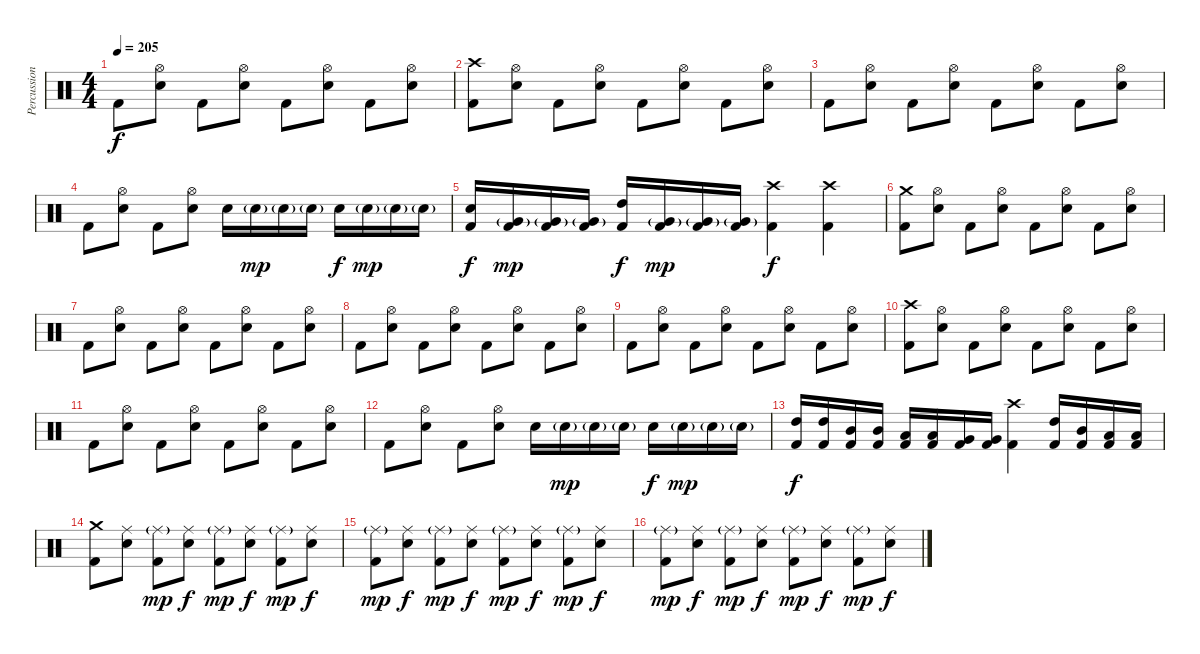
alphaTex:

\track ("Percussions" "Percussion") {instrument percussion}
\staff {score}
\articulation defaults
\ts (4 4)
\tempo 205
\clef neutral
\ks c "Kick (hit) 2".8{dy f}
("Hi-Hat (open)" "Electric Snare (hit)").8 "Kick (hit) 2".8 ("Hi-Hat (open)" "Electric Snare (hit)").8 "Kick (hit) 2".8 ("Hi-Hat (open)" "Electric Snare (hit)").8 "Kick (hit) 2".8 ("Hi-Hat (open)" "Electric Snare (hit)").8 |
("Crash high (hit)" "Kick (hit) 2").8 ("Hi-Hat (open)" "Electric Snare (hit)").8 "Kick (hit) 2".8 ("Hi-Hat (open)" "Electric Snare (hit)").8 "Kick (hit) 2".8 ("Hi-Hat (open)" "Electric Snare (hit)").8 "Kick (hit) 2".8 ("Hi-Hat (open)" "Electric Snare (hit)").8 |
"Kick (hit) 2".8 ("Hi-Hat (open)" "Electric Snare (hit)").8 "Kick (hit) 2".8 ("Hi-Hat (open)" "Electric Snare (hit)").8 "Kick (hit) 2".8 ("Hi-Hat (open)" "Electric Snare (hit)").8 "Kick (hit) 2".8 ("Hi-Hat (open)" "Electric Snare (hit)").8 |
"Kick (hit) 2".8 ("Hi-Hat (open)" "Electric Snare (hit)").8 "Kick (hit) 2".8 ("Hi-Hat (open)" "Electric Snare (hit)").8 "Electric Snare (hit)".16 "Electric Snare (hit)"{g}.16{dy mp} "Electric Snare (hit)"{g}.16 "Electric Snare (hit)"{g}.16 "Electric Snare (hit)".16{dy f} "Electric Snare (hit)"{g}.16{dy mp} "Electric Snare (hit)"{g}.16 "Electric Snare (hit)"{g}.16 |
("Electric Snare (hit)" "Kick (hit) 2").16{dy f} ("Very Low Tom (hit)"{g} "Kick (hit) 2").16{dy mp} ("Very Low Tom (hit)"{g} "Kick (hit) 2").16 ("Very Low Tom (hit)"{g} "Kick (hit) 2").16 ("High Tom (hit)" "Kick (hit) 2").16{dy f} ("Very Low Tom (hit)"{g} "Kick (hit) 2").16{dy mp} ("Very Low Tom (hit)"{g} "Kick (hit) 2").16 ("Very Low Tom (hit)"{g} "Kick (hit) 2").16 ("Crash high (hit)" "Kick (hit) 2").4{dy f} ("Crash high (hit)" "Kick (hit) 2").4 |
("Crash medium (hit)" "Kick (hit) 2").8 ("Hi-Hat (open)" "Electric Snare (hit)").8 "Kick (hit) 2".8 ("Hi-Hat (open)" "Electric Snare (hit)").8 "Kick (hit) 2".8 ("Hi-Hat (open)" "Electric Snare (hit)").8 "Kick (hit) 2".8 ("Hi-Hat (open)" "Electric Snare (hit)").8 |
"Kick (hit) 2".8 ("Hi-Hat (open)" "Electric Snare (hit)").8 "Kick (hit) 2".8 ("Hi-Hat (open)" "Electric Snare (hit)").8 "Kick (hit) 2".8 ("Hi-Hat (open)" "Electric Snare (hit)").8 "Kick (hit) 2".8 ("Hi-Hat (open)" "Electric Snare (hit)").8 |
"Kick (hit) 2".8 ("Hi-Hat (open)" "Electric Snare (hit)").8 "Kick (hit) 2".8 ("Hi-Hat (open)" "Electric Snare (hit)").8 "Kick (hit) 2".8 ("Hi-Hat (open)" "Electric Snare (hit)").8 "Kick (hit) 2".8 ("Hi-Hat (open)" "Electric Snare (hit)").8 |
"Kick (hit) 2".8 ("Hi-Hat (open)" "Electric Snare (hit)").8 "Kick (hit) 2".8 ("Hi-Hat (open)" "Electric Snare (hit)").8 "Kick (hit) 2".8 ("Hi-Hat (open)" "Electric Snare (hit)").8 "Kick (hit) 2".8 ("Hi-Hat (open)" "Electric Snare (hit)").8 |
("Crash high (hit)" "Kick (hit) 2").8 ("Hi-Hat (open)" "Electric Snare (hit)").8 "Kick (hit) 2".8 ("Hi-Hat (open)" "Electric Snare (hit)").8 "Kick (hit) 2".8 ("Hi-Hat (open)" "Electric Snare (hit)").8 "Kick (hit) 2".8 ("Hi-Hat (open)" "Electric Snare (hit)").8 |
"Kick (hit) 2".8 ("Hi-Hat (open)" "Electric Snare (hit)").8 "Kick (hit) 2".8 ("Hi-Hat (open)" "Electric Snare (hit)").8 "Kick (hit) 2".8 ("Hi-Hat (open)" "Electric Snare (hit)").8 "Kick (hit) 2".8 ("Hi-Hat (open)" "Electric Snare (hit)").8 |
"Kick (hit) 2".8 ("Hi-Hat (open)" "Electric Snare (hit)").8 "Kick (hit) 2".8 ("Hi-Hat (open)" "Electric Snare (hit)").8 "Electric Snare (hit)".16 "Electric Snare (hit)"{g}.16{dy mp} "Electric Snare (hit)"{g}.16 "Electric Snare (hit)"{g}.16 "Electric Snare (hit)".16{dy f} "Electric Snare (hit)"{g}.16{dy mp} "Electric Snare (hit)"{g}.16 "Electric Snare (hit)"{g}.16 |
("High Tom (hit)" "Kick (hit) 2").16{dy f} ("High Tom (hit)" "Kick (hit) 2").16 ("Mid Tom (hit)" "Kick (hit) 2").16 ("Mid Tom (hit)" "Kick (hit) 2").16 ("Low Tom (hit)" "Kick (hit) 2").16 ("Low Tom (hit)" "Kick (hit) 2").16 ("Very Low Tom (hit)" "Kick (hit) 2").16 ("Very Low Tom (hit)" "Kick (hit) 2").16 ("Crash high (hit)" "Kick (hit) 2").4 ("High Tom (hit)" "Kick (hit) 2").16 ("Mid Tom (hit)" "Kick (hit) 2").16 ("Low Tom (hit)" "Kick (hit) 2").16 ("Low Tom (hit)" "Kick (hit) 2").16 |
("Crash medium (hit)" "Kick (hit) 2").8 ("Ride (middle)" "Electric Snare (hit)").8 ("Ride (middle)"{g} "Kick (hit) 2").8{dy mp} ("Ride (middle)" "Electric Snare (hit)").8{dy f} ("Ride (middle)"{g} "Kick (hit) 2").8{dy mp} ("Ride (middle)" "Electric Snare (hit)").8{dy f} ("Ride (middle)"{g} "Kick (hit) 2").8{dy mp} ("Ride (middle)" "Electric Snare (hit)").8{dy f} |
("Ride (middle)"{g} "Kick (hit) 2").8{dy mp} ("Ride (middle)" "Electric Snare (hit)").8{dy f} ("Ride (middle)"{g} "Kick (hit) 2").8{dy mp} ("Ride (middle)" "Electric Snare (hit)").8{dy f} ("Ride (middle)"{g} "Kick (hit) 2").8{dy mp} ("Ride (middle)" "Electric Snare (hit)").8{dy f} ("Ride (middle)"{g} "Kick (hit) 2").8{dy mp} ("Ride (middle)" "Electric Snare (hit)").8{dy f} |
("Ride (middle)"{g} "Kick (hit) 2").8{dy mp} ("Ride (middle)" "Electric Snare (hit)").8{dy f} ("Ride (middle)"{g} "Kick (hit) 2").8{dy mp} ("Ride (middle)" "Electric Snare (hit)").8{dy f} ("Ride (middle)"{g} "Kick (hit) 2").8{dy mp} ("Ride (middle)" "Electric Snare (hit)").8{dy f} ("Ride (middle)"{g} "Kick (hit) 2").8{dy mp} ("Ride (middle)" "Electric Snare (hit)").8{dy f}
